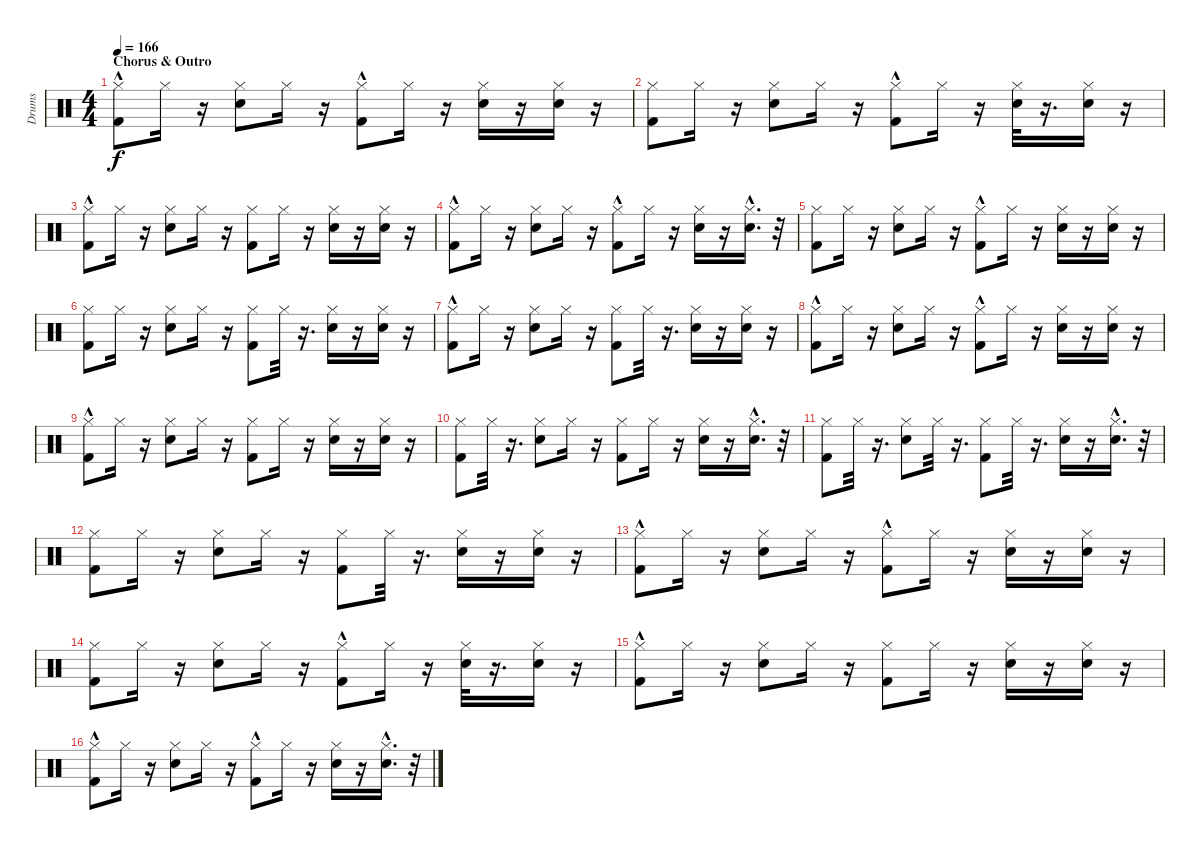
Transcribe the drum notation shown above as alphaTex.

\track ("Drums" "Drums") {instrument percussion}
\staff {score}
\articulation defaults
\ts (4 4)
\section ("" "Chorus & Outro")
\tempo 166
\clef neutral
\ks c
("Kick (hit) 2"{hac} "Hi-Hat (closed)").8{dy f} "Hi-Hat (closed)".16 r.16 ("Hi-Hat (closed)" "Snare (hit) 2").8 "Hi-Hat (closed)".16 r.16 ("Kick (hit) 2"{hac} "Hi-Hat (closed)").8 "Hi-Hat (closed)".16 r.16 ("Hi-Hat (closed)" "Snare (hit) 2").16 r.16 ("Hi-Hat (closed)" "Snare (hit) 2").16 r.16 |
("Kick (hit) 2" "Hi-Hat (closed)").8 "Hi-Hat (closed)".16 r.16 ("Hi-Hat (closed)" "Snare (hit) 2").8 "Hi-Hat (closed)".16 r.16 ("Kick (hit) 2"{hac} "Hi-Hat (closed)").8 "Hi-Hat (closed)".16 r.16 ("Hi-Hat (closed)" "Snare (hit) 2").32 r.16{d} ("Hi-Hat (closed)" "Snare (hit) 2").16 r.16 |
("Kick (hit) 2"{hac} "Hi-Hat (closed)").8 "Hi-Hat (closed)".16 r.16 ("Hi-Hat (closed)" "Snare (hit) 2").8 "Hi-Hat (closed)".16 r.16 ("Kick (hit) 2" "Hi-Hat (closed)").8 "Hi-Hat (closed)".16 r.16 ("Hi-Hat (closed)" "Snare (hit) 2").16 r.16 ("Hi-Hat (closed)" "Snare (hit) 2").16 r.16 |
("Kick (hit) 2"{hac} "Hi-Hat (closed)").8 "Hi-Hat (closed)".16 r.16 ("Hi-Hat (closed)" "Snare (hit) 2").8 "Hi-Hat (closed)".16 r.16 ("Kick (hit) 2"{hac} "Hi-Hat (closed)").8 "Hi-Hat (closed)".16 r.16 ("Hi-Hat (closed)" "Snare (hit) 2").16 r.16 ("Hi-Hat (closed)" "Snare (hit) 2"{hac}).16{d} r.32 |
("Kick (hit) 2" "Hi-Hat (closed)").8 "Hi-Hat (closed)".16 r.16 ("Hi-Hat (closed)" "Snare (hit) 2").8 "Hi-Hat (closed)".16 r.16 ("Kick (hit) 2"{hac} "Hi-Hat (closed)").8 "Hi-Hat (closed)".16 r.16 ("Hi-Hat (closed)" "Snare (hit) 2").16 r.16 ("Hi-Hat (closed)" "Snare (hit) 2").16 r.16 |
("Kick (hit) 2" "Hi-Hat (closed)").8 "Hi-Hat (closed)".16 r.16 ("Hi-Hat (closed)" "Snare (hit) 2").8 "Hi-Hat (closed)".16 r.16 ("Kick (hit) 2" "Hi-Hat (closed)").8 "Hi-Hat (closed)".32 r.16{d} ("Hi-Hat (closed)" "Snare (hit) 2").16 r.16 ("Hi-Hat (closed)" "Snare (hit) 2").16 r.16 |
("Kick (hit) 2"{hac} "Hi-Hat (closed)").8 "Hi-Hat (closed)".16 r.16 ("Hi-Hat (closed)" "Snare (hit) 2").8 "Hi-Hat (closed)".16 r.16 ("Kick (hit) 2" "Hi-Hat (closed)").8 "Hi-Hat (closed)".32 r.16{d} ("Hi-Hat (closed)" "Snare (hit) 2").16 r.16 ("Hi-Hat (closed)" "Snare (hit) 2").16 r.16 |
("Kick (hit) 2"{hac} "Hi-Hat (closed)").8 "Hi-Hat (closed)".16 r.16 ("Hi-Hat (closed)" "Snare (hit) 2").8 "Hi-Hat (closed)".16 r.16 ("Kick (hit) 2"{hac} "Hi-Hat (closed)").8 "Hi-Hat (closed)".16 r.16 ("Hi-Hat (closed)" "Snare (hit) 2").16 r.16 ("Hi-Hat (closed)" "Snare (hit) 2").16 r.16 |
("Kick (hit) 2"{hac} "Hi-Hat (closed)").8 "Hi-Hat (closed)".16 r.16 ("Hi-Hat (closed)" "Snare (hit) 2").8 "Hi-Hat (closed)".16 r.16 ("Kick (hit) 2" "Hi-Hat (closed)").8 "Hi-Hat (closed)".16 r.16 ("Hi-Hat (closed)" "Snare (hit) 2").16 r.16 ("Hi-Hat (closed)" "Snare (hit) 2").16 r.16 |
("Kick (hit) 2" "Hi-Hat (closed)").8 "Hi-Hat (closed)".32 r.16{d} ("Hi-Hat (closed)" "Snare (hit) 2").8 "Hi-Hat (closed)".16 r.16 ("Kick (hit) 2" "Hi-Hat (closed)").8 "Hi-Hat (closed)".16 r.16 ("Hi-Hat (closed)" "Snare (hit) 2").16 r.16 ("Hi-Hat (closed)" "Snare (hit) 2"{hac}).16{d} r.32 |
("Kick (hit) 2" "Hi-Hat (closed)").8 "Hi-Hat (closed)".32 r.16{d} ("Hi-Hat (closed)" "Snare (hit) 2").8 "Hi-Hat (closed)".32 r.16{d} ("Kick (hit) 2" "Hi-Hat (closed)").8 "Hi-Hat (closed)".32 r.16{d} ("Hi-Hat (closed)" "Snare (hit) 2").16 r.16 ("Hi-Hat (closed)" "Snare (hit) 2"{hac}).16{d} r.32 |
("Kick (hit) 2" "Hi-Hat (closed)").8 "Hi-Hat (closed)".16 r.16 ("Hi-Hat (closed)" "Snare (hit) 2").8 "Hi-Hat (closed)".16 r.16 ("Kick (hit) 2" "Hi-Hat (closed)").8 "Hi-Hat (closed)".32 r.16{d} ("Hi-Hat (closed)" "Snare (hit) 2").16 r.16 ("Hi-Hat (closed)" "Snare (hit) 2").16 r.16 |
("Kick (hit) 2"{hac} "Hi-Hat (closed)").8 "Hi-Hat (closed)".16 r.16 ("Hi-Hat (closed)" "Snare (hit) 2").8 "Hi-Hat (closed)".16 r.16 ("Kick (hit) 2"{hac} "Hi-Hat (closed)").8 "Hi-Hat (closed)".16 r.16 ("Hi-Hat (closed)" "Snare (hit) 2").16 r.16 ("Hi-Hat (closed)" "Snare (hit) 2").16 r.16 |
("Kick (hit) 2" "Hi-Hat (closed)").8 "Hi-Hat (closed)".16 r.16 ("Hi-Hat (closed)" "Snare (hit) 2").8 "Hi-Hat (closed)".16 r.16 ("Kick (hit) 2"{hac} "Hi-Hat (closed)").8 "Hi-Hat (closed)".16 r.16 ("Hi-Hat (closed)" "Snare (hit) 2").32 r.16{d} ("Hi-Hat (closed)" "Snare (hit) 2").16 r.16 |
("Kick (hit) 2"{hac} "Hi-Hat (closed)").8 "Hi-Hat (closed)".16 r.16 ("Hi-Hat (closed)" "Snare (hit) 2").8 "Hi-Hat (closed)".16 r.16 ("Kick (hit) 2" "Hi-Hat (closed)").8 "Hi-Hat (closed)".16 r.16 ("Hi-Hat (closed)" "Snare (hit) 2").16 r.16 ("Hi-Hat (closed)" "Snare (hit) 2").16 r.16 |
("Kick (hit) 2"{hac} "Hi-Hat (closed)").8 "Hi-Hat (closed)".16 r.16 ("Hi-Hat (closed)" "Snare (hit) 2").8 "Hi-Hat (closed)".16 r.16 ("Kick (hit) 2"{hac} "Hi-Hat (closed)").8 "Hi-Hat (closed)".16 r.16 ("Hi-Hat (closed)" "Snare (hit) 2").16 r.16 ("Hi-Hat (closed)" "Snare (hit) 2"{hac}).16{d} r.32
